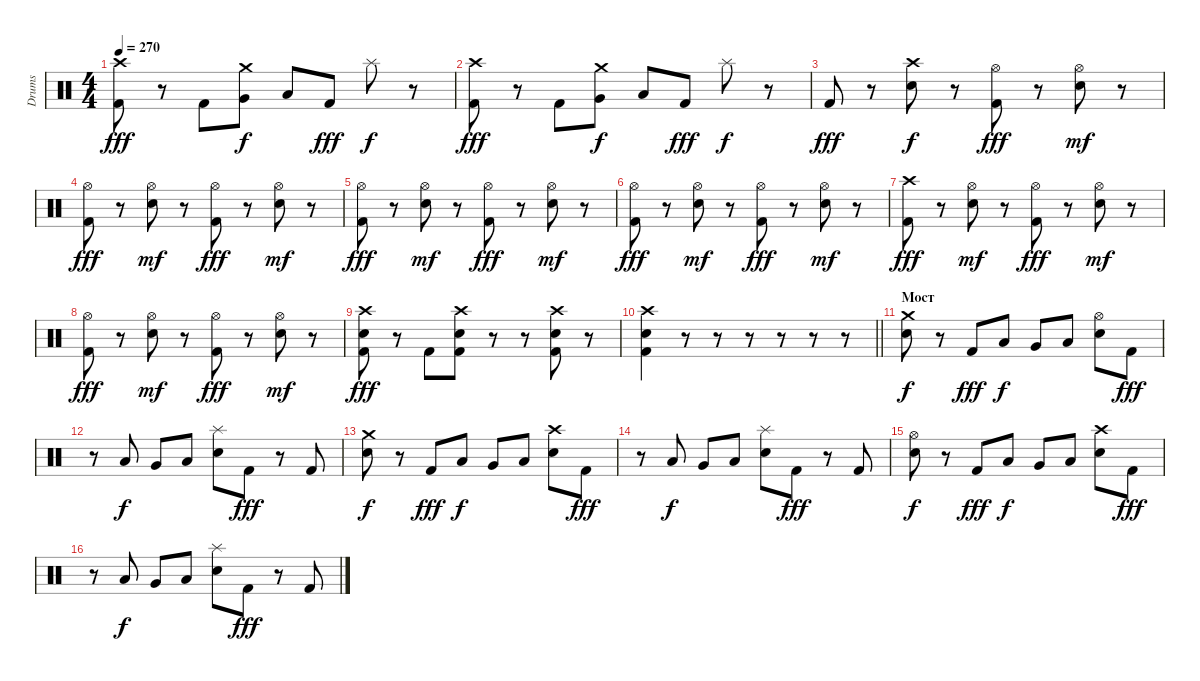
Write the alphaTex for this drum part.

\track ("Drums" "Drums") {instrument percussion}
\staff {score}
\articulation defaults
\ts (4 4)
\tempo 270
\clef neutral
\ks c
("Crash high (hit)" "Kick (hit) 2").8{dy fff} r.8 "Kick (hit) 2".8 ("Crash medium (hit)" "Very Low Tom (hit)").8{dy f} "Low Floor Tom (hit)".8 "Kick (hit) 2".8{dy fff} "Splash (hit)".8{dy f} r.8 |
("Crash high (hit)" "Kick (hit) 2").8{dy fff} r.8 "Kick (hit) 2".8 ("Crash medium (hit)" "Very Low Tom (hit)").8{dy f} "Low Floor Tom (hit)".8 "Kick (hit) 2".8{dy fff} "Splash (hit)".8{dy f} r.8 |
"Kick (hit) 2".8{dy fff} r.8 ("Crash high (hit)" "Electric Snare (hit)").8{dy f} r.8 ("Hi-Hat (open)" "Kick (hit) 2").8{dy fff} r.8 ("Hi-Hat (open)" "Electric Snare (hit)").8{dy mf} r.8 |
("Hi-Hat (open)" "Kick (hit) 2").8{dy fff} r.8 ("Hi-Hat (open)" "Electric Snare (hit)").8{dy mf} r.8 ("Hi-Hat (open)" "Kick (hit) 2").8{dy fff} r.8 ("Hi-Hat (open)" "Electric Snare (hit)").8{dy mf} r.8 |
("Hi-Hat (open)" "Kick (hit) 2").8{dy fff} r.8 ("Hi-Hat (open)" "Electric Snare (hit)").8{dy mf} r.8 ("Hi-Hat (open)" "Kick (hit) 2").8{dy fff} r.8 ("Hi-Hat (open)" "Electric Snare (hit)").8{dy mf} r.8 |
("Hi-Hat (open)" "Kick (hit) 2").8{dy fff} r.8 ("Hi-Hat (open)" "Electric Snare (hit)").8{dy mf} r.8 ("Hi-Hat (open)" "Kick (hit) 2").8{dy fff} r.8 ("Hi-Hat (open)" "Electric Snare (hit)").8{dy mf} r.8 |
("Crash high (hit)" "Kick (hit) 2").8{dy fff} r.8 ("Hi-Hat (open)" "Electric Snare (hit)").8{dy mf} r.8 ("Hi-Hat (open)" "Kick (hit) 2").8{dy fff} r.8 ("Hi-Hat (open)" "Electric Snare (hit)").8{dy mf} r.8 |
("Hi-Hat (open)" "Kick (hit) 2").8{dy fff} r.8 ("Hi-Hat (open)" "Electric Snare (hit)").8{dy mf} r.8 ("Hi-Hat (open)" "Kick (hit) 2").8{dy fff} r.8 ("Hi-Hat (open)" "Electric Snare (hit)").8{dy mf} r.8 |
("Crash high (hit)" "Electric Snare (hit)" "Kick (hit) 2").8{dy fff} r.8 "Kick (hit) 2".8 ("Crash high (hit)" "Electric Snare (hit)" "Kick (hit) 2").8 r.8 r.8 ("Crash high (hit)" "Electric Snare (hit)" "Kick (hit) 2").8 r.8 |
\barLineRight lightlight
("Crash high (hit)" "Electric Snare (hit)" "Kick (hit) 2").4 r.8 r.8 r.8 r.8 r.8 r.8 |
\section ("" "Мост")
("Crash medium (hit)" "Electric Snare (hit)").8{dy f} r.8 "Kick (hit) 2".8{dy fff} "Low Tom (hit)".8{dy f} "Very Low Tom (hit)".8 "Low Floor Tom (hit)".8 ("Hi-Hat (open)" "Electric Snare (hit)").8 "Kick (hit) 2".8{dy fff} |
r.8 "Low Tom (hit)".8{dy f} "Very Low Tom (hit)".8 "Low Floor Tom (hit)".8 ("Splash (hit)" "Electric Snare (hit)").8 "Kick (hit) 2".8{dy fff} r.8 "Kick (hit) 2".8 |
("Crash medium (hit)" "Electric Snare (hit)").8{dy f} r.8 "Kick (hit) 2".8{dy fff} "Low Tom (hit)".8{dy f} "Very Low Tom (hit)".8 "Low Floor Tom (hit)".8 ("Crash high (hit)" "Electric Snare (hit)").8 "Kick (hit) 2".8{dy fff} |
r.8 "Low Tom (hit)".8{dy f} "Very Low Tom (hit)".8 "Low Floor Tom (hit)".8 ("Splash (hit)" "Electric Snare (hit)").8 "Kick (hit) 2".8{dy fff} r.8 "Kick (hit) 2".8 |
("Hi-Hat (open)" "Electric Snare (hit)").8{dy f} r.8 "Kick (hit) 2".8{dy fff} "Low Tom (hit)".8{dy f} "Very Low Tom (hit)".8 "Low Floor Tom (hit)".8 ("Crash high (hit)" "Electric Snare (hit)").8 "Kick (hit) 2".8{dy fff} |
r.8 "Low Tom (hit)".8{dy f} "Very Low Tom (hit)".8 "Low Floor Tom (hit)".8 ("Splash (hit)" "Electric Snare (hit)").8 "Kick (hit) 2".8{dy fff} r.8 "Kick (hit) 2".8
